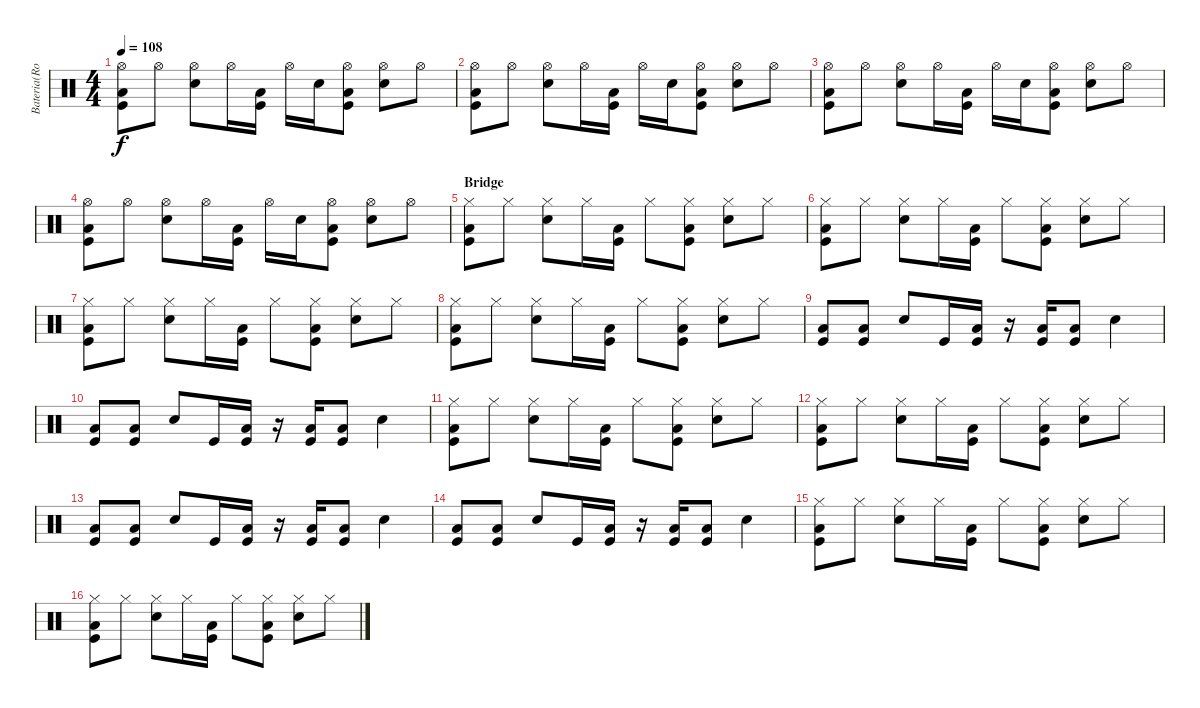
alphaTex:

\track ("Bateria(Rob)" "Bateria(Ro") {instrument percussion}
\staff {score}
\articulation defaults
\ts (4 4)
\tempo 108
\clef neutral
\ks c
("Hi-Hat (open)" "Kick (hit)" "Low Tom (hit)").8{dy f} "Hi-Hat (open)".8 ("Hi-Hat (open)" "Snare (hit) 2").8 "Hi-Hat (open)".16 ("Kick (hit)" "Low Tom (hit)").16 "Hi-Hat (open)".16 "Snare (hit) 2".16 ("Hi-Hat (open)" "Kick (hit)" "Low Tom (hit)").8 ("Hi-Hat (open)" "Snare (hit) 2").8 "Hi-Hat (open)".8 |
("Hi-Hat (open)" "Kick (hit)" "Low Tom (hit)").8 "Hi-Hat (open)".8 ("Hi-Hat (open)" "Snare (hit) 2").8 "Hi-Hat (open)".16 ("Kick (hit)" "Low Tom (hit)").16 "Hi-Hat (open)".16 "Snare (hit) 2".16 ("Hi-Hat (open)" "Kick (hit)" "Low Tom (hit)").8 ("Hi-Hat (open)" "Snare (hit) 2").8 "Hi-Hat (open)".8 |
("Hi-Hat (open)" "Kick (hit)" "Low Tom (hit)").8 "Hi-Hat (open)".8 ("Hi-Hat (open)" "Snare (hit) 2").8 "Hi-Hat (open)".16 ("Kick (hit)" "Low Tom (hit)").16 "Hi-Hat (open)".16 "Snare (hit) 2".16 ("Hi-Hat (open)" "Kick (hit)" "Low Tom (hit)").8 ("Hi-Hat (open)" "Snare (hit) 2").8 "Hi-Hat (open)".8 |
("Hi-Hat (open)" "Kick (hit)" "Low Tom (hit)").8 "Hi-Hat (open)".8 ("Hi-Hat (open)" "Snare (hit) 2").8 "Hi-Hat (open)".16 ("Kick (hit)" "Low Tom (hit)").16 "Hi-Hat (open)".16 "Snare (hit) 2".16 ("Hi-Hat (open)" "Kick (hit)" "Low Tom (hit)").8 ("Hi-Hat (open)" "Snare (hit) 2").8 "Hi-Hat (open)".8 |
\section ("" "Bridge")
("Hi-Hat (closed)" "Kick (hit)" "Low Tom (hit)").8 "Hi-Hat (closed)".8 ("Hi-Hat (closed)" "Snare (hit) 2").8 "Hi-Hat (closed)".16 ("Kick (hit)" "Low Tom (hit)").16 "Hi-Hat (closed)".8 ("Hi-Hat (closed)" "Kick (hit)" "Low Tom (hit)").8 ("Hi-Hat (closed)" "Snare (hit) 2").8 "Hi-Hat (closed)".8 |
("Hi-Hat (closed)" "Kick (hit)" "Low Tom (hit)").8 "Hi-Hat (closed)".8 ("Hi-Hat (closed)" "Snare (hit) 2").8 "Hi-Hat (closed)".16 ("Kick (hit)" "Low Tom (hit)").16 "Hi-Hat (closed)".8 ("Hi-Hat (closed)" "Kick (hit)" "Low Tom (hit)").8 ("Hi-Hat (closed)" "Snare (hit) 2").8 "Hi-Hat (closed)".8 |
("Hi-Hat (closed)" "Kick (hit)" "Low Tom (hit)").8 "Hi-Hat (closed)".8 ("Hi-Hat (closed)" "Snare (hit) 2").8 "Hi-Hat (closed)".16 ("Kick (hit)" "Low Tom (hit)").16 "Hi-Hat (closed)".8 ("Hi-Hat (closed)" "Kick (hit)" "Low Tom (hit)").8 ("Hi-Hat (closed)" "Snare (hit) 2").8 "Hi-Hat (closed)".8 |
("Hi-Hat (closed)" "Kick (hit)" "Low Tom (hit)").8 "Hi-Hat (closed)".8 ("Hi-Hat (closed)" "Snare (hit) 2").8 "Hi-Hat (closed)".16 ("Kick (hit)" "Low Tom (hit)").16 "Hi-Hat (closed)".8 ("Hi-Hat (closed)" "Kick (hit)" "Low Tom (hit)").8 ("Hi-Hat (closed)" "Snare (hit) 2").8 "Hi-Hat (closed)".8 |
("Kick (hit)" "Low Tom (hit)").8 ("Kick (hit)" "Low Tom (hit)").8 "Snare (hit) 2".8 "Kick (hit)".16 ("Kick (hit)" "Low Tom (hit)").16 r.16 ("Kick (hit)" "Low Tom (hit)").16 ("Kick (hit)" "Low Tom (hit)").8 "Snare (hit) 2".4 |
("Kick (hit)" "Low Tom (hit)").8 ("Kick (hit)" "Low Tom (hit)").8 "Snare (hit) 2".8 "Kick (hit)".16 ("Kick (hit)" "Low Tom (hit)").16 r.16 ("Kick (hit)" "Low Tom (hit)").16 ("Kick (hit)" "Low Tom (hit)").8 "Snare (hit) 2".4 |
("Hi-Hat (closed)" "Kick (hit)" "Low Tom (hit)").8 "Hi-Hat (closed)".8 ("Hi-Hat (closed)" "Snare (hit) 2").8 "Hi-Hat (closed)".16 ("Kick (hit)" "Low Tom (hit)").16 "Hi-Hat (closed)".8 ("Hi-Hat (closed)" "Kick (hit)" "Low Tom (hit)").8 ("Hi-Hat (closed)" "Snare (hit) 2").8 "Hi-Hat (closed)".8 |
("Hi-Hat (closed)" "Kick (hit)" "Low Tom (hit)").8 "Hi-Hat (closed)".8 ("Hi-Hat (closed)" "Snare (hit) 2").8 "Hi-Hat (closed)".16 ("Kick (hit)" "Low Tom (hit)").16 "Hi-Hat (closed)".8 ("Hi-Hat (closed)" "Kick (hit)" "Low Tom (hit)").8 ("Hi-Hat (closed)" "Snare (hit) 2").8 "Hi-Hat (closed)".8 |
("Kick (hit)" "Low Tom (hit)").8 ("Kick (hit)" "Low Tom (hit)").8 "Snare (hit) 2".8 "Kick (hit)".16 ("Kick (hit)" "Low Tom (hit)").16 r.16 ("Kick (hit)" "Low Tom (hit)").16 ("Kick (hit)" "Low Tom (hit)").8 "Snare (hit) 2".4 |
("Kick (hit)" "Low Tom (hit)").8 ("Kick (hit)" "Low Tom (hit)").8 "Snare (hit) 2".8 "Kick (hit)".16 ("Kick (hit)" "Low Tom (hit)").16 r.16 ("Kick (hit)" "Low Tom (hit)").16 ("Kick (hit)" "Low Tom (hit)").8 "Snare (hit) 2".4 |
("Hi-Hat (closed)" "Kick (hit)" "Low Tom (hit)").8 "Hi-Hat (closed)".8 ("Hi-Hat (closed)" "Snare (hit) 2").8 "Hi-Hat (closed)".16 ("Kick (hit)" "Low Tom (hit)").16 "Hi-Hat (closed)".8 ("Hi-Hat (closed)" "Kick (hit)" "Low Tom (hit)").8 ("Hi-Hat (closed)" "Snare (hit) 2").8 "Hi-Hat (closed)".8 |
("Hi-Hat (closed)" "Kick (hit)" "Low Tom (hit)").8 "Hi-Hat (closed)".8 ("Hi-Hat (closed)" "Snare (hit) 2").8 "Hi-Hat (closed)".16 ("Kick (hit)" "Low Tom (hit)").16 "Hi-Hat (closed)".8 ("Hi-Hat (closed)" "Kick (hit)" "Low Tom (hit)").8 ("Hi-Hat (closed)" "Snare (hit) 2").8 "Hi-Hat (closed)".8
